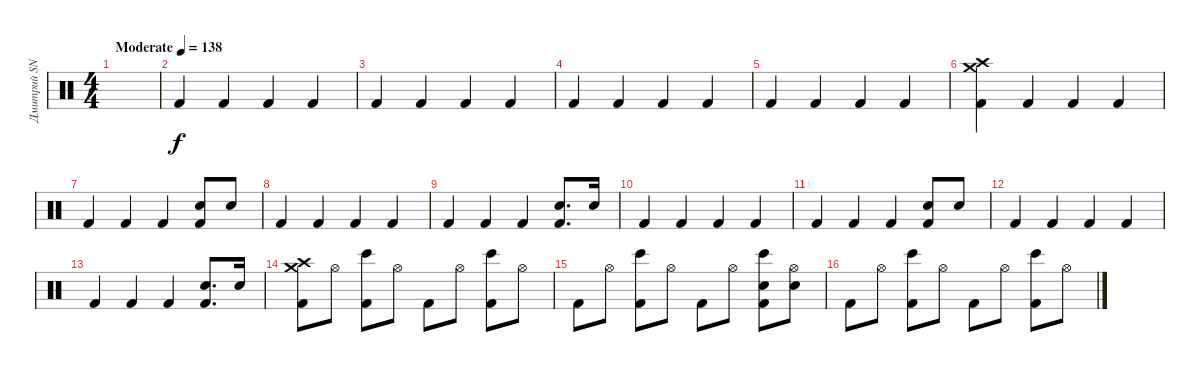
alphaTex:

\track ("Дмитрий SNAKE Хакимов (ударные)" "Дмитрий SN") {instrument percussion}
\staff {score}
\articulation defaults
\ts (4 4)
\tempo (138 "Moderate")
\clef neutral
\ks c
|
"Kick (hit) 2".4 "Kick (hit) 2".4 "Kick (hit) 2".4 "Kick (hit) 2".4 |
"Kick (hit) 2".4 "Kick (hit) 2".4 "Kick (hit) 2".4 "Kick (hit) 2".4 |
"Kick (hit) 2".4 "Kick (hit) 2".4 "Kick (hit) 2".4 "Kick (hit) 2".4 |
"Kick (hit) 2".4 "Kick (hit) 2".4 "Kick (hit) 2".4 "Kick (hit) 2".4 |
("Crash high (hit)" "Crash medium (hit)" "Kick (hit) 2").4 "Kick (hit) 2".4 "Kick (hit) 2".4 "Kick (hit) 2".4 |
"Kick (hit) 2".4 "Kick (hit) 2".4 "Kick (hit) 2".4 ("Electric Snare (hit)" "Kick (hit) 2").8 "Electric Snare (hit)".8 |
"Kick (hit) 2".4 "Kick (hit) 2".4 "Kick (hit) 2".4 "Kick (hit) 2".4 |
"Kick (hit) 2".4 "Kick (hit) 2".4 "Kick (hit) 2".4 ("Electric Snare (hit)" "Kick (hit) 2").8{d} "Electric Snare (hit)".16 |
"Kick (hit) 2".4 "Kick (hit) 2".4 "Kick (hit) 2".4 "Kick (hit) 2".4 |
"Kick (hit) 2".4 "Kick (hit) 2".4 "Kick (hit) 2".4 ("Electric Snare (hit)" "Kick (hit) 2").8 "Electric Snare (hit)".8 |
"Kick (hit) 2".4 "Kick (hit) 2".4 "Kick (hit) 2".4 "Kick (hit) 2".4 |
"Kick (hit) 2".4 "Kick (hit) 2".4 "Kick (hit) 2".4 ("Electric Snare (hit)" "Kick (hit) 2").8{d} "Electric Snare (hit)".16 |
("Crash high (hit)" "Crash medium (hit)" "Kick (hit) 2").8 "Hi-Hat (open)".8 ("Bongo High (hit)" "Kick (hit) 2").8 "Hi-Hat (open)".8 "Kick (hit) 2".8 "Hi-Hat (open)".8 ("Bongo High (hit)" "Kick (hit) 2").8 "Hi-Hat (open)".8 |
"Kick (hit) 2".8 "Hi-Hat (open)".8 ("Bongo High (hit)" "Kick (hit) 2").8 "Hi-Hat (open)".8 "Kick (hit) 2".8 "Hi-Hat (open)".8 ("Bongo High (hit)" "Electric Snare (hit)" "Kick (hit) 2").8 ("Hi-Hat (open)" "Electric Snare (hit)").8 |
"Kick (hit) 2".8 "Hi-Hat (open)".8 ("Bongo High (hit)" "Kick (hit) 2").8 "Hi-Hat (open)".8 "Kick (hit) 2".8 "Hi-Hat (open)".8 ("Bongo High (hit)" "Kick (hit) 2").8 "Hi-Hat (open)".8
